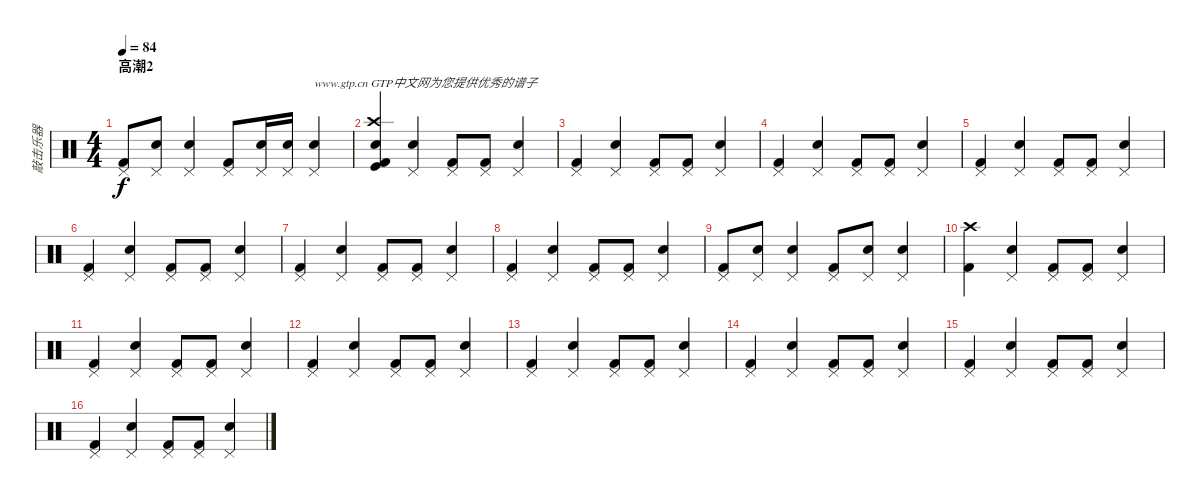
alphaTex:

\track ("敲击乐器" "敲击乐器") {instrument percussion}
\staff {score}
\articulation defaults
\ts (4 4)
\section ("" "高潮2")
\tempo 84
\clef neutral
\ks c
("Kick (hit) 2" "Pedal Hi-Hat (hit)").8{dy f} ("Snare (hit) 2" "Pedal Hi-Hat (hit)").8 ("Snare (hit) 2" "Pedal Hi-Hat (hit)").4 ("Kick (hit) 2" "Pedal Hi-Hat (hit)").8 ("Snare (hit) 2" "Pedal Hi-Hat (hit)").16 ("Snare (hit) 2" "Pedal Hi-Hat (hit)").16 ("Snare (hit) 2" "Pedal Hi-Hat (hit)").4{txt "www.gtp.cn GTP中文网为您提供优秀的谱子"} |
("Kick (hit) 2" "Crash high (hit)" "Kick (hit)" "Metronome (bell)").4 ("Snare (hit) 2" "Pedal Hi-Hat (hit)").4 ("Kick (hit) 2" "Pedal Hi-Hat (hit)").8 ("Kick (hit) 2" "Pedal Hi-Hat (hit)").8 ("Snare (hit) 2" "Pedal Hi-Hat (hit)").4 |
("Kick (hit) 2" "Pedal Hi-Hat (hit)").4 ("Snare (hit) 2" "Pedal Hi-Hat (hit)").4 ("Kick (hit) 2" "Pedal Hi-Hat (hit)").8 ("Kick (hit) 2" "Pedal Hi-Hat (hit)").8 ("Snare (hit) 2" "Pedal Hi-Hat (hit)").4 |
("Kick (hit) 2" "Pedal Hi-Hat (hit)").4 ("Snare (hit) 2" "Pedal Hi-Hat (hit)").4 ("Kick (hit) 2" "Pedal Hi-Hat (hit)").8 ("Kick (hit) 2" "Pedal Hi-Hat (hit)").8 ("Snare (hit) 2" "Pedal Hi-Hat (hit)").4 |
("Kick (hit) 2" "Pedal Hi-Hat (hit)").4 ("Snare (hit) 2" "Pedal Hi-Hat (hit)").4 ("Kick (hit) 2" "Pedal Hi-Hat (hit)").8 ("Kick (hit) 2" "Pedal Hi-Hat (hit)").8 ("Snare (hit) 2" "Pedal Hi-Hat (hit)").4 |
("Kick (hit) 2" "Pedal Hi-Hat (hit)").4 ("Snare (hit) 2" "Pedal Hi-Hat (hit)").4 ("Kick (hit) 2" "Pedal Hi-Hat (hit)").8 ("Kick (hit) 2" "Pedal Hi-Hat (hit)").8 ("Snare (hit) 2" "Pedal Hi-Hat (hit)").4 |
("Kick (hit) 2" "Pedal Hi-Hat (hit)").4 ("Snare (hit) 2" "Pedal Hi-Hat (hit)").4 ("Kick (hit) 2" "Pedal Hi-Hat (hit)").8 ("Kick (hit) 2" "Pedal Hi-Hat (hit)").8 ("Snare (hit) 2" "Pedal Hi-Hat (hit)").4 |
("Kick (hit) 2" "Pedal Hi-Hat (hit)").4 ("Snare (hit) 2" "Pedal Hi-Hat (hit)").4 ("Kick (hit) 2" "Pedal Hi-Hat (hit)").8 ("Kick (hit) 2" "Pedal Hi-Hat (hit)").8 ("Snare (hit) 2" "Pedal Hi-Hat (hit)").4 |
("Kick (hit) 2" "Pedal Hi-Hat (hit)").8 ("Snare (hit) 2" "Pedal Hi-Hat (hit)").8 ("Snare (hit) 2" "Pedal Hi-Hat (hit)").4 ("Kick (hit) 2" "Pedal Hi-Hat (hit)").8 ("Snare (hit) 2" "Pedal Hi-Hat (hit)").8 ("Snare (hit) 2" "Pedal Hi-Hat (hit)").4 |
("Kick (hit) 2" "Crash high (hit)").4 ("Snare (hit) 2" "Pedal Hi-Hat (hit)").4 ("Kick (hit) 2" "Pedal Hi-Hat (hit)").8 ("Kick (hit) 2" "Pedal Hi-Hat (hit)").8 ("Snare (hit) 2" "Pedal Hi-Hat (hit)").4 |
("Kick (hit) 2" "Pedal Hi-Hat (hit)").4 ("Snare (hit) 2" "Pedal Hi-Hat (hit)").4 ("Kick (hit) 2" "Pedal Hi-Hat (hit)").8 ("Kick (hit) 2" "Pedal Hi-Hat (hit)").8 ("Snare (hit) 2" "Pedal Hi-Hat (hit)").4 |
("Kick (hit) 2" "Pedal Hi-Hat (hit)").4 ("Snare (hit) 2" "Pedal Hi-Hat (hit)").4 ("Kick (hit) 2" "Pedal Hi-Hat (hit)").8 ("Kick (hit) 2" "Pedal Hi-Hat (hit)").8 ("Snare (hit) 2" "Pedal Hi-Hat (hit)").4 |
("Kick (hit) 2" "Pedal Hi-Hat (hit)").4 ("Snare (hit) 2" "Pedal Hi-Hat (hit)").4 ("Kick (hit) 2" "Pedal Hi-Hat (hit)").8 ("Kick (hit) 2" "Pedal Hi-Hat (hit)").8 ("Snare (hit) 2" "Pedal Hi-Hat (hit)").4 |
("Kick (hit) 2" "Pedal Hi-Hat (hit)").4 ("Snare (hit) 2" "Pedal Hi-Hat (hit)").4 ("Kick (hit) 2" "Pedal Hi-Hat (hit)").8 ("Kick (hit) 2" "Pedal Hi-Hat (hit)").8 ("Snare (hit) 2" "Pedal Hi-Hat (hit)").4 |
("Kick (hit) 2" "Pedal Hi-Hat (hit)").4 ("Snare (hit) 2" "Pedal Hi-Hat (hit)").4 ("Kick (hit) 2" "Pedal Hi-Hat (hit)").8 ("Kick (hit) 2" "Pedal Hi-Hat (hit)").8 ("Snare (hit) 2" "Pedal Hi-Hat (hit)").4 |
("Kick (hit) 2" "Pedal Hi-Hat (hit)").4 ("Snare (hit) 2" "Pedal Hi-Hat (hit)").4 ("Kick (hit) 2" "Pedal Hi-Hat (hit)").8 ("Kick (hit) 2" "Pedal Hi-Hat (hit)").8 ("Snare (hit) 2" "Pedal Hi-Hat (hit)").4
